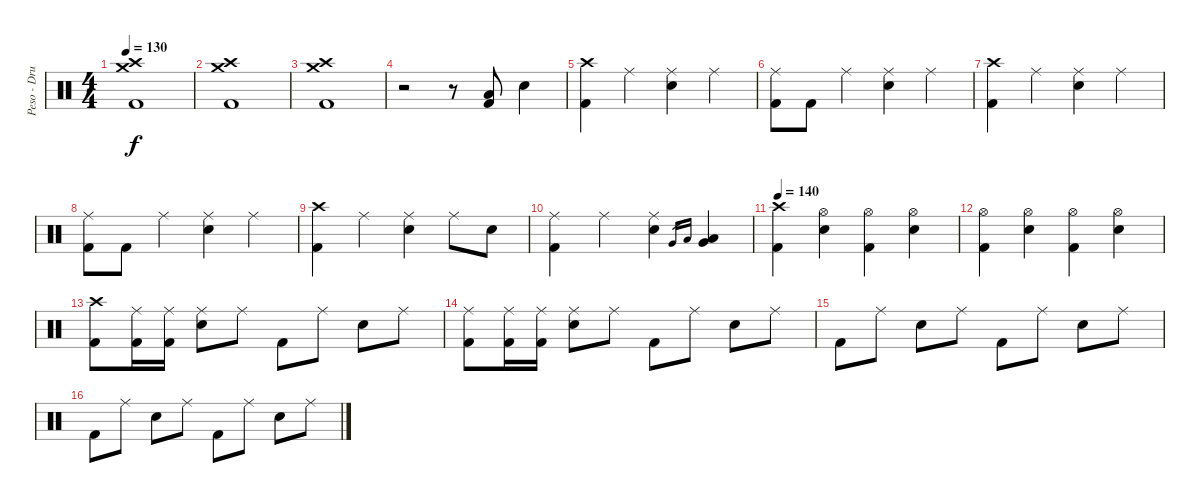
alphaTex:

\track ("Peso - Drums" "Peso - Dru") {instrument percussion}
\staff {score}
\articulation defaults
\ts (4 4)
\tempo 130
\clef neutral
\ks c
("Crash medium (hit)" "Crash high (hit)" "Kick (hit) 2").1{dy f} |
("Crash medium (hit)" "Crash high (hit)" "Kick (hit) 2").1 |
("Crash medium (hit)" "Crash high (hit)" "Kick (hit) 2").1 |
r.2 r.8 ("Low Floor Tom (hit)" "Kick (hit) 2").8 "Electric Snare (hit)".4 |
("Crash high (hit)" "Kick (hit) 2").4 "Ride (middle)".4 ("Ride (middle)" "Electric Snare (hit)").4 "Ride (middle)".4 |
("Ride (middle)" "Kick (hit) 2").8 "Kick (hit) 2".8 "Ride (middle)".4 ("Ride (middle)" "Electric Snare (hit)").4 "Ride (middle)".4 |
("Crash high (hit)" "Kick (hit) 2").4 "Ride (middle)".4 ("Ride (middle)" "Electric Snare (hit)").4 "Ride (middle)".4 |
("Ride (middle)" "Kick (hit) 2").8 "Kick (hit) 2".8 "Ride (middle)".4 ("Ride (middle)" "Electric Snare (hit)").4 "Ride (middle)".4 |
("Crash high (hit)" "Kick (hit) 2").4 "Ride (middle)".4 ("Ride (middle)" "Electric Snare (hit)").4 "Ride (middle)".8 "Electric Snare (hit)".8 |
("Ride (middle)" "Kick (hit) 2").4 "Ride (middle)".4 ("Ride (middle)" "Electric Snare (hit)").4 "Very Low Tom (hit)".16{gr} "Low Floor Tom (hit)".16{gr} ("Very Low Tom (hit)" "Low Floor Tom (hit)").4 |
\tempo 140
("Crash high (hit)" "Kick (hit) 2").4 ("Hi-Hat (open)" "Electric Snare (hit)").4 ("Hi-Hat (open)" "Kick (hit) 2").4 ("Hi-Hat (open)" "Electric Snare (hit)").4 |
("Hi-Hat (open)" "Kick (hit) 2").4 ("Hi-Hat (open)" "Electric Snare (hit)").4 ("Hi-Hat (open)" "Kick (hit) 2").4 ("Hi-Hat (open)" "Electric Snare (hit)").4 |
("Crash high (hit)" "Kick (hit) 2").8 ("Ride (middle)" "Kick (hit) 2").16 ("Ride (middle)" "Kick (hit) 2").16 ("Ride (middle)" "Electric Snare (hit)").8 "Ride (middle)".8 "Kick (hit) 2".8 "Ride (middle)".8 "Electric Snare (hit)".8 "Ride (middle)".8 |
("Ride (middle)" "Kick (hit) 2").8 ("Ride (middle)" "Kick (hit) 2").16 ("Ride (middle)" "Kick (hit) 2").16 ("Ride (middle)" "Electric Snare (hit)").8 "Ride (middle)".8 "Kick (hit) 2".8 "Ride (middle)".8 "Electric Snare (hit)".8 "Ride (middle)".8 |
"Kick (hit) 2".8 "Ride (middle)".8 "Electric Snare (hit)".8 "Ride (middle)".8 "Kick (hit) 2".8 "Ride (middle)".8 "Electric Snare (hit)".8 "Ride (middle)".8 |
"Kick (hit) 2".8 "Ride (middle)".8 "Electric Snare (hit)".8 "Ride (middle)".8 "Kick (hit) 2".8 "Ride (middle)".8 "Electric Snare (hit)".8 "Ride (middle)".8
